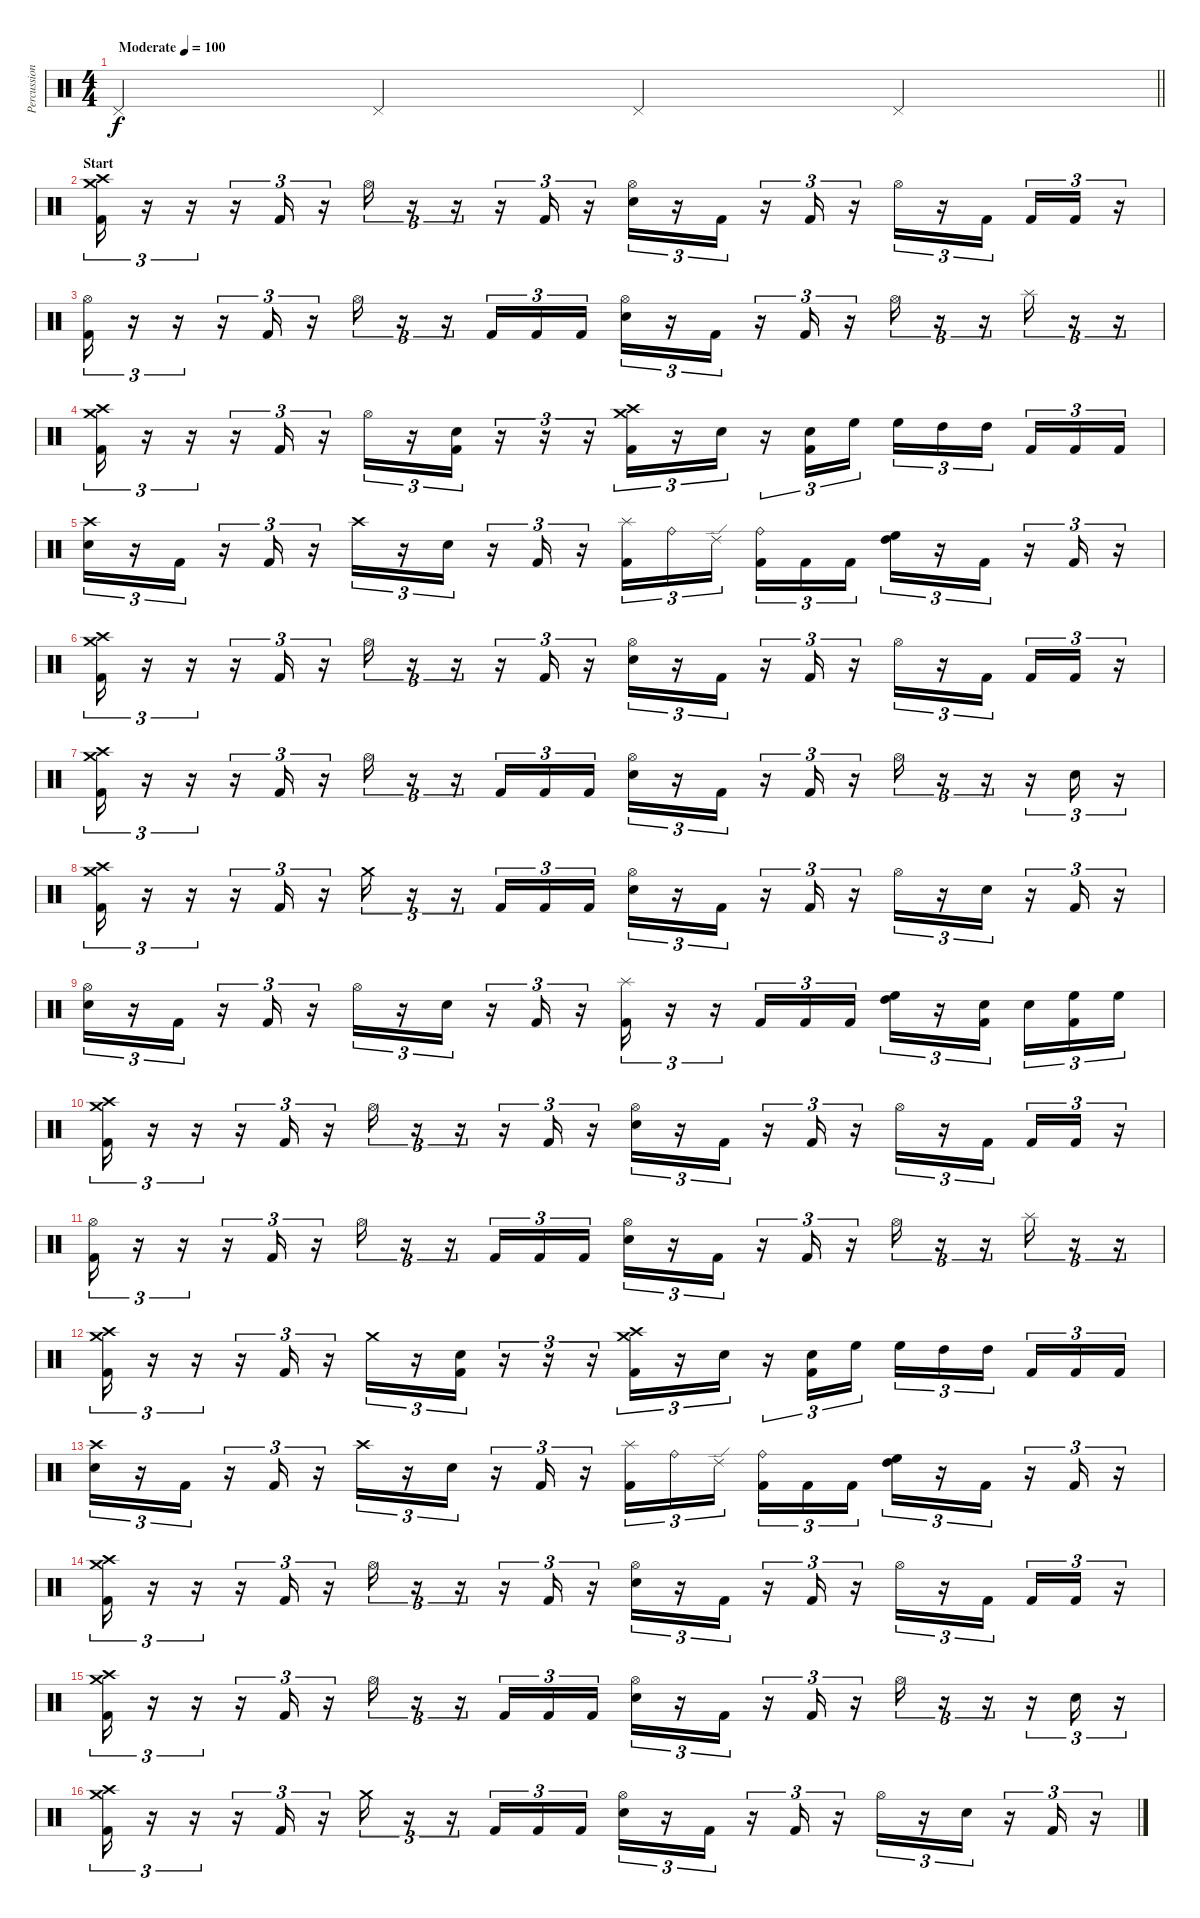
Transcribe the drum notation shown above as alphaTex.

\track ("Percussion" "Percussion") {instrument percussion}
\staff {score}
\articulation defaults
\ts (4 4)
\tempo (100 "Moderate")
\clef neutral
\barLineRight lightlight
\ks c "Pedal Hi-Hat (hit)".4{dy f} "Pedal Hi-Hat (hit)".4 "Pedal Hi-Hat (hit)".4 "Pedal Hi-Hat (hit)".4
|
\section ("" "Start")
("Crash high (hit)" "Crash medium (hit)" "Kick (hit) 2").16{tu (3 2)} r.16{tu (3 2)} r.16{tu (3 2)} r.16{tu (3 2)} "Kick (hit) 2".16{tu (3 2)} r.16{tu (3 2)} "Hi-Hat (open)".16{tu (3 2)} r.16{tu (3 2)} r.16{tu (3 2)} r.16{tu (3 2)} "Kick (hit) 2".16{tu (3 2)} r.16{tu (3 2)} ("Hi-Hat (open)" "Electric Snare (hit)").16{tu (3 2)} r.16{tu (3 2)} "Kick (hit) 2".16{tu (3 2)} r.16{tu (3 2)} "Kick (hit) 2".16{tu (3 2)} r.16{tu (3 2)} "Hi-Hat (open)".16{tu (3 2)} r.16{tu (3 2)} "Kick (hit) 2".16{tu (3 2) beam splitsecondary} "Kick (hit) 2".16{tu (3 2)} "Kick (hit) 2".16{tu (3 2)} r.16{tu (3 2)} |
("Hi-Hat (open)" "Kick (hit) 2").16{tu (3 2)} r.16{tu (3 2)} r.16{tu (3 2)} r.16{tu (3 2)} "Kick (hit) 2".16{tu (3 2)} r.16{tu (3 2)} "Hi-Hat (open)".16{tu (3 2)} r.16{tu (3 2)} r.16{tu (3 2)} "Kick (hit) 2".16{tu (3 2)} "Kick (hit) 2".16{tu (3 2)} "Kick (hit) 2".16{tu (3 2)} ("Hi-Hat (open)" "Electric Snare (hit)").16{tu (3 2)} r.16{tu (3 2)} "Kick (hit) 2".16{tu (3 2)} r.16{tu (3 2)} "Kick (hit) 2".16{tu (3 2)} r.16{tu (3 2)} "Hi-Hat (open)".16{tu (3 2)} r.16{tu (3 2)} r.16{tu (3 2)} "Splash (hit)".16{tu (3 2)} r.16{tu (3 2)} r.16{tu (3 2)} |
("Crash high (hit)" "Crash medium (hit)" "Kick (hit) 2").16{tu (3 2)} r.16{tu (3 2)} r.16{tu (3 2)} r.16{tu (3 2)} "Kick (hit) 2".16{tu (3 2)} r.16{tu (3 2)} "Hi-Hat (open)".16{tu (3 2)} r.16{tu (3 2)} ("Electric Snare (hit)" "Kick (hit) 2").16{tu (3 2)} r.16{tu (3 2)} r.16{tu (3 2)} r.16{tu (3 2)} ("Crash high (hit)" "Crash medium (hit)" "Kick (hit) 2").16{tu (3 2)} r.16{tu (3 2)} "Electric Snare (hit)".16{tu (3 2)} r.16{tu (3 2)} ("Electric Snare (hit)" "Kick (hit) 2").16{tu (3 2)} "High Floor Tom (hit)".16{tu (3 2)} "High Floor Tom (hit)".16{tu (3 2)} "High Tom (hit)".16{tu (3 2)} "High Tom (hit)".16{tu (3 2) beam splitsecondary} "Kick (hit) 2".16{tu (3 2)} "Kick (hit) 2".16{tu (3 2)} "Kick (hit) 2".16{tu (3 2)} |
("Crash high (hit)" "Electric Snare (hit)").16{tu (3 2)} r.16{tu (3 2)} "Kick (hit) 2".16{tu (3 2)} r.16{tu (3 2)} "Kick (hit) 2".16{tu (3 2)} r.16{tu (3 2)} "Crash high (hit)".16{tu (3 2)} r.16{tu (3 2)} "Electric Snare (hit)".16{tu (3 2)} r.16{tu (3 2)} "Kick (hit) 2".16{tu (3 2)} r.16{tu (3 2)} ("Splash (hit)" "Kick (hit) 2").16{tu (3 2)} "Ride (bell)".16{tu (3 2)} "Ride (edge) 2".16{tu (3 2) beam splitsecondary} ("Ride (bell)" "Kick (hit) 2").16{tu (3 2)} "Kick (hit) 2".16{tu (3 2)} "Kick (hit) 2".16{tu (3 2)} ("High Floor Tom (hit)" "High Tom (hit)").16{tu (3 2)} r.16{tu (3 2)} "Kick (hit) 2".16{tu (3 2)} r.16{tu (3 2)} "Kick (hit) 2".16{tu (3 2)} r.16{tu (3 2)} |
("Crash high (hit)" "Crash medium (hit)" "Kick (hit) 2").16{tu (3 2)} r.16{tu (3 2)} r.16{tu (3 2)} r.16{tu (3 2)} "Kick (hit) 2".16{tu (3 2)} r.16{tu (3 2)} "Hi-Hat (open)".16{tu (3 2)} r.16{tu (3 2)} r.16{tu (3 2)} r.16{tu (3 2)} "Kick (hit) 2".16{tu (3 2)} r.16{tu (3 2)} ("Hi-Hat (open)" "Electric Snare (hit)").16{tu (3 2)} r.16{tu (3 2)} "Kick (hit) 2".16{tu (3 2)} r.16{tu (3 2)} "Kick (hit) 2".16{tu (3 2)} r.16{tu (3 2)} "Hi-Hat (open)".16{tu (3 2)} r.16{tu (3 2)} "Kick (hit) 2".16{tu (3 2) beam splitsecondary} "Kick (hit) 2".16{tu (3 2)} "Kick (hit) 2".16{tu (3 2)} r.16{tu (3 2)} |
("Crash high (hit)" "Crash medium (hit)" "Kick (hit) 2").16{tu (3 2)} r.16{tu (3 2)} r.16{tu (3 2)} r.16{tu (3 2)} "Kick (hit) 2".16{tu (3 2)} r.16{tu (3 2)} "Hi-Hat (open)".16{tu (3 2)} r.16{tu (3 2)} r.16{tu (3 2)} "Kick (hit) 2".16{tu (3 2)} "Kick (hit) 2".16{tu (3 2)} "Kick (hit) 2".16{tu (3 2)} ("Hi-Hat (open)" "Electric Snare (hit)").16{tu (3 2)} r.16{tu (3 2)} "Kick (hit) 2".16{tu (3 2)} r.16{tu (3 2)} "Kick (hit) 2".16{tu (3 2)} r.16{tu (3 2)} "Hi-Hat (open)".16{tu (3 2)} r.16{tu (3 2)} r.16{tu (3 2)} r.16{tu (3 2)} "Electric Snare (hit)".16{tu (3 2)} r.16{tu (3 2)} |
("Crash high (hit)" "Crash medium (hit)" "Kick (hit) 2").16{tu (3 2)} r.16{tu (3 2)} r.16{tu (3 2)} r.16{tu (3 2)} "Kick (hit) 2".16{tu (3 2)} r.16{tu (3 2)} "Crash medium (hit)".16{tu (3 2)} r.16{tu (3 2)} r.16{tu (3 2)} "Kick (hit) 2".16{tu (3 2)} "Kick (hit) 2".16{tu (3 2)} "Kick (hit) 2".16{tu (3 2)} ("Hi-Hat (open)" "Electric Snare (hit)").16{tu (3 2)} r.16{tu (3 2)} "Kick (hit) 2".16{tu (3 2)} r.16{tu (3 2)} "Kick (hit) 2".16{tu (3 2)} r.16{tu (3 2)} "Hi-Hat (open)".16{tu (3 2)} r.16{tu (3 2)} "Electric Snare (hit)".16{tu (3 2)} r.16{tu (3 2)} "Kick (hit) 2".16{tu (3 2)} r.16{tu (3 2)} |
("Hi-Hat (open)" "Electric Snare (hit)").16{tu (3 2)} r.16{tu (3 2)} "Kick (hit) 2".16{tu (3 2)} r.16{tu (3 2)} "Kick (hit) 2".16{tu (3 2)} r.16{tu (3 2)} "Hi-Hat (open)".16{tu (3 2)} r.16{tu (3 2)} "Electric Snare (hit)".16{tu (3 2)} r.16{tu (3 2)} "Kick (hit) 2".16{tu (3 2)} r.16{tu (3 2)} ("Splash (hit)" "Kick (hit) 2").16{tu (3 2)} r.16{tu (3 2)} r.16{tu (3 2)} "Kick (hit) 2".16{tu (3 2)} "Kick (hit) 2".16{tu (3 2)} "Kick (hit) 2".16{tu (3 2)} ("High Floor Tom (hit)" "High Tom (hit)").16{tu (3 2)} r.16{tu (3 2)} ("Electric Snare (hit)" "Kick (hit) 2").16{tu (3 2) beam splitsecondary} "Electric Snare (hit)".16{tu (3 2)} ("High Floor Tom (hit)" "Kick (hit) 2").16{tu (3 2)} "High Floor Tom (hit)".16{tu (3 2)} |
("Crash high (hit)" "Crash medium (hit)" "Kick (hit) 2").16{tu (3 2)} r.16{tu (3 2)} r.16{tu (3 2)} r.16{tu (3 2)} "Kick (hit) 2".16{tu (3 2)} r.16{tu (3 2)} "Hi-Hat (open)".16{tu (3 2)} r.16{tu (3 2)} r.16{tu (3 2)} r.16{tu (3 2)} "Kick (hit) 2".16{tu (3 2)} r.16{tu (3 2)} ("Hi-Hat (open)" "Electric Snare (hit)").16{tu (3 2)} r.16{tu (3 2)} "Kick (hit) 2".16{tu (3 2)} r.16{tu (3 2)} "Kick (hit) 2".16{tu (3 2)} r.16{tu (3 2)} "Hi-Hat (open)".16{tu (3 2)} r.16{tu (3 2)} "Kick (hit) 2".16{tu (3 2) beam splitsecondary} "Kick (hit) 2".16{tu (3 2)} "Kick (hit) 2".16{tu (3 2)} r.16{tu (3 2)} |
("Hi-Hat (open)" "Kick (hit) 2").16{tu (3 2)} r.16{tu (3 2)} r.16{tu (3 2)} r.16{tu (3 2)} "Kick (hit) 2".16{tu (3 2)} r.16{tu (3 2)} "Hi-Hat (open)".16{tu (3 2)} r.16{tu (3 2)} r.16{tu (3 2)} "Kick (hit) 2".16{tu (3 2)} "Kick (hit) 2".16{tu (3 2)} "Kick (hit) 2".16{tu (3 2)} ("Hi-Hat (open)" "Electric Snare (hit)").16{tu (3 2)} r.16{tu (3 2)} "Kick (hit) 2".16{tu (3 2)} r.16{tu (3 2)} "Kick (hit) 2".16{tu (3 2)} r.16{tu (3 2)} "Hi-Hat (open)".16{tu (3 2)} r.16{tu (3 2)} r.16{tu (3 2)} "Splash (hit)".16{tu (3 2)} r.16{tu (3 2)} r.16{tu (3 2)} |
("Crash high (hit)" "Crash medium (hit)" "Kick (hit) 2").16{tu (3 2)} r.16{tu (3 2)} r.16{tu (3 2)} r.16{tu (3 2)} "Kick (hit) 2".16{tu (3 2)} r.16{tu (3 2)} "Crash medium (hit)".16{tu (3 2)} r.16{tu (3 2)} ("Electric Snare (hit)" "Kick (hit) 2").16{tu (3 2)} r.16{tu (3 2)} r.16{tu (3 2)} r.16{tu (3 2)} ("Crash high (hit)" "Crash medium (hit)" "Kick (hit) 2").16{tu (3 2)} r.16{tu (3 2)} "Electric Snare (hit)".16{tu (3 2)} r.16{tu (3 2)} ("Electric Snare (hit)" "Kick (hit) 2").16{tu (3 2)} "High Floor Tom (hit)".16{tu (3 2)} "High Floor Tom (hit)".16{tu (3 2)} "High Tom (hit)".16{tu (3 2)} "High Tom (hit)".16{tu (3 2) beam splitsecondary} "Kick (hit) 2".16{tu (3 2)} "Kick (hit) 2".16{tu (3 2)} "Kick (hit) 2".16{tu (3 2)} |
("Crash high (hit)" "Electric Snare (hit)").16{tu (3 2)} r.16{tu (3 2)} "Kick (hit) 2".16{tu (3 2)} r.16{tu (3 2)} "Kick (hit) 2".16{tu (3 2)} r.16{tu (3 2)} "Crash high (hit)".16{tu (3 2)} r.16{tu (3 2)} "Electric Snare (hit)".16{tu (3 2)} r.16{tu (3 2)} "Kick (hit) 2".16{tu (3 2)} r.16{tu (3 2)} ("Splash (hit)" "Kick (hit) 2").16{tu (3 2)} "Ride (bell)".16{tu (3 2)} "Ride (edge) 2".16{tu (3 2) beam splitsecondary} ("Ride (bell)" "Kick (hit) 2").16{tu (3 2)} "Kick (hit) 2".16{tu (3 2)} "Kick (hit) 2".16{tu (3 2)} ("High Floor Tom (hit)" "High Tom (hit)").16{tu (3 2)} r.16{tu (3 2)} "Kick (hit) 2".16{tu (3 2)} r.16{tu (3 2)} "Kick (hit) 2".16{tu (3 2)} r.16{tu (3 2)} |
("Crash high (hit)" "Crash medium (hit)" "Kick (hit) 2").16{tu (3 2)} r.16{tu (3 2)} r.16{tu (3 2)} r.16{tu (3 2)} "Kick (hit) 2".16{tu (3 2)} r.16{tu (3 2)} "Hi-Hat (open)".16{tu (3 2)} r.16{tu (3 2)} r.16{tu (3 2)} r.16{tu (3 2)} "Kick (hit) 2".16{tu (3 2)} r.16{tu (3 2)} ("Hi-Hat (open)" "Electric Snare (hit)").16{tu (3 2)} r.16{tu (3 2)} "Kick (hit) 2".16{tu (3 2)} r.16{tu (3 2)} "Kick (hit) 2".16{tu (3 2)} r.16{tu (3 2)} "Hi-Hat (open)".16{tu (3 2)} r.16{tu (3 2)} "Kick (hit) 2".16{tu (3 2) beam splitsecondary} "Kick (hit) 2".16{tu (3 2)} "Kick (hit) 2".16{tu (3 2)} r.16{tu (3 2)} |
("Crash high (hit)" "Crash medium (hit)" "Kick (hit) 2").16{tu (3 2)} r.16{tu (3 2)} r.16{tu (3 2)} r.16{tu (3 2)} "Kick (hit) 2".16{tu (3 2)} r.16{tu (3 2)} "Hi-Hat (open)".16{tu (3 2)} r.16{tu (3 2)} r.16{tu (3 2)} "Kick (hit) 2".16{tu (3 2)} "Kick (hit) 2".16{tu (3 2)} "Kick (hit) 2".16{tu (3 2)} ("Hi-Hat (open)" "Electric Snare (hit)").16{tu (3 2)} r.16{tu (3 2)} "Kick (hit) 2".16{tu (3 2)} r.16{tu (3 2)} "Kick (hit) 2".16{tu (3 2)} r.16{tu (3 2)} "Hi-Hat (open)".16{tu (3 2)} r.16{tu (3 2)} r.16{tu (3 2)} r.16{tu (3 2)} "Electric Snare (hit)".16{tu (3 2)} r.16{tu (3 2)} |
("Crash high (hit)" "Crash medium (hit)" "Kick (hit) 2").16{tu (3 2)} r.16{tu (3 2)} r.16{tu (3 2)} r.16{tu (3 2)} "Kick (hit) 2".16{tu (3 2)} r.16{tu (3 2)} "Crash medium (hit)".16{tu (3 2)} r.16{tu (3 2)} r.16{tu (3 2)} "Kick (hit) 2".16{tu (3 2)} "Kick (hit) 2".16{tu (3 2)} "Kick (hit) 2".16{tu (3 2)} ("Hi-Hat (open)" "Electric Snare (hit)").16{tu (3 2)} r.16{tu (3 2)} "Kick (hit) 2".16{tu (3 2)} r.16{tu (3 2)} "Kick (hit) 2".16{tu (3 2)} r.16{tu (3 2)} "Hi-Hat (open)".16{tu (3 2)} r.16{tu (3 2)} "Electric Snare (hit)".16{tu (3 2)} r.16{tu (3 2)} "Kick (hit) 2".16{tu (3 2)} r.16{tu (3 2)}
